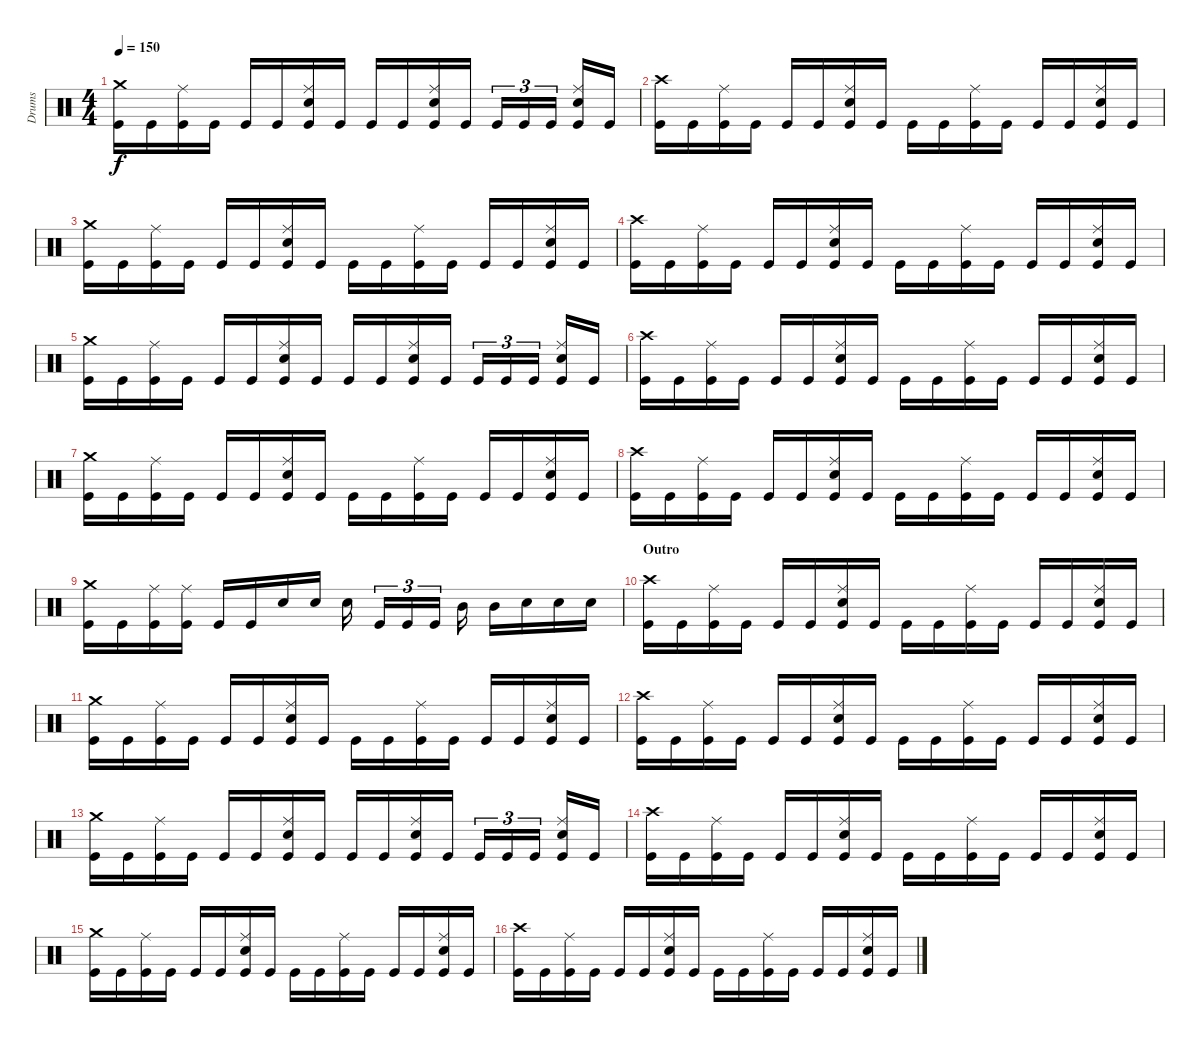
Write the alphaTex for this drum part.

\track ("Drums" "Drums") {instrument percussion}
\staff {score}
\articulation defaults
\ts (4 4)
\tempo 150
\clef neutral
\ks c
("Crash medium (hit)" "Kick (hit)").16{dy f} "Kick (hit)".16 ("Ride (middle)" "Kick (hit)").16 "Kick (hit)".16 "Kick (hit)".16 "Kick (hit)".16 ("Ride (middle)" "Electric Snare (hit)" "Kick (hit)").16 "Kick (hit)".16 "Kick (hit)".16 "Kick (hit)".16 ("Ride (middle)" "Electric Snare (hit)" "Kick (hit)").16 "Kick (hit)".16 "Kick (hit)".16{tu (3 2)} "Kick (hit)".16{tu (3 2)} "Kick (hit)".16{tu (3 2)} ("Ride (middle)" "Electric Snare (hit)" "Kick (hit)").16 "Kick (hit)".16 |
("Crash high (hit)" "Kick (hit)").16 "Kick (hit)".16 ("Ride (middle)" "Kick (hit)").16 "Kick (hit)".16 "Kick (hit)".16 "Kick (hit)".16 ("Ride (middle)" "Electric Snare (hit)" "Kick (hit)").16 "Kick (hit)".16 "Kick (hit)".16 "Kick (hit)".16 ("Ride (middle)" "Kick (hit)").16 "Kick (hit)".16 "Kick (hit)".16 "Kick (hit)".16 ("Ride (middle)" "Electric Snare (hit)" "Kick (hit)").16 "Kick (hit)".16 |
("Crash medium (hit)" "Kick (hit)").16 "Kick (hit)".16 ("Ride (middle)" "Kick (hit)").16 "Kick (hit)".16 "Kick (hit)".16 "Kick (hit)".16 ("Ride (middle)" "Electric Snare (hit)" "Kick (hit)").16 "Kick (hit)".16 "Kick (hit)".16 "Kick (hit)".16 ("Ride (middle)" "Kick (hit)").16 "Kick (hit)".16 "Kick (hit)".16 "Kick (hit)".16 ("Ride (middle)" "Electric Snare (hit)" "Kick (hit)").16 "Kick (hit)".16 |
("Crash high (hit)" "Kick (hit)").16 "Kick (hit)".16 ("Ride (middle)" "Kick (hit)").16 "Kick (hit)".16 "Kick (hit)".16 "Kick (hit)".16 ("Ride (middle)" "Electric Snare (hit)" "Kick (hit)").16 "Kick (hit)".16 "Kick (hit)".16 "Kick (hit)".16 ("Ride (middle)" "Kick (hit)").16 "Kick (hit)".16 "Kick (hit)".16 "Kick (hit)".16 ("Ride (middle)" "Electric Snare (hit)" "Kick (hit)").16 "Kick (hit)".16 |
("Crash medium (hit)" "Kick (hit)").16 "Kick (hit)".16 ("Ride (middle)" "Kick (hit)").16 "Kick (hit)".16 "Kick (hit)".16 "Kick (hit)".16 ("Ride (middle)" "Electric Snare (hit)" "Kick (hit)").16 "Kick (hit)".16 "Kick (hit)".16 "Kick (hit)".16 ("Ride (middle)" "Electric Snare (hit)" "Kick (hit)").16 "Kick (hit)".16 "Kick (hit)".16{tu (3 2)} "Kick (hit)".16{tu (3 2)} "Kick (hit)".16{tu (3 2)} ("Ride (middle)" "Electric Snare (hit)" "Kick (hit)").16 "Kick (hit)".16 |
("Crash high (hit)" "Kick (hit)").16 "Kick (hit)".16 ("Ride (middle)" "Kick (hit)").16 "Kick (hit)".16 "Kick (hit)".16 "Kick (hit)".16 ("Ride (middle)" "Electric Snare (hit)" "Kick (hit)").16 "Kick (hit)".16 "Kick (hit)".16 "Kick (hit)".16 ("Ride (middle)" "Kick (hit)").16 "Kick (hit)".16 "Kick (hit)".16 "Kick (hit)".16 ("Ride (middle)" "Electric Snare (hit)" "Kick (hit)").16 "Kick (hit)".16 |
("Crash medium (hit)" "Kick (hit)").16 "Kick (hit)".16 ("Ride (middle)" "Kick (hit)").16 "Kick (hit)".16 "Kick (hit)".16 "Kick (hit)".16 ("Ride (middle)" "Electric Snare (hit)" "Kick (hit)").16 "Kick (hit)".16 "Kick (hit)".16 "Kick (hit)".16 ("Ride (middle)" "Kick (hit)").16 "Kick (hit)".16 "Kick (hit)".16 "Kick (hit)".16 ("Ride (middle)" "Electric Snare (hit)" "Kick (hit)").16 "Kick (hit)".16 |
("Crash high (hit)" "Kick (hit)").16 "Kick (hit)".16 ("Ride (middle)" "Kick (hit)").16 "Kick (hit)".16 "Kick (hit)".16 "Kick (hit)".16 ("Ride (middle)" "Electric Snare (hit)" "Kick (hit)").16 "Kick (hit)".16 "Kick (hit)".16 "Kick (hit)".16 ("Ride (middle)" "Kick (hit)").16 "Kick (hit)".16 "Kick (hit)".16 "Kick (hit)".16 ("Ride (middle)" "Electric Snare (hit)" "Kick (hit)").16 "Kick (hit)".16 |
("Crash medium (hit)" "Kick (hit)").16 "Kick (hit)".16 ("Ride (middle)" "Kick (hit)").16 ("Ride (middle)" "Kick (hit)").16 "Kick (hit)".16 "Kick (hit)".16 "Electric Snare (hit)".16 "Electric Snare (hit)".16 "Electric Snare (hit)".16 "Kick (hit)".16{tu (3 2)} "Kick (hit)".16{tu (3 2)} "Kick (hit)".16{tu (3 2)} "Mid Tom (hit)".16 "Mid Tom (hit)".16 "Electric Snare (hit)".16 "Electric Snare (hit)".16 "Electric Snare (hit)".16 |
\section ("" "Outro")
("Crash high (hit)" "Kick (hit)").16 "Kick (hit)".16 ("Ride (middle)" "Kick (hit)").16 "Kick (hit)".16 "Kick (hit)".16 "Kick (hit)".16 ("Ride (middle)" "Electric Snare (hit)" "Kick (hit)").16 "Kick (hit)".16 "Kick (hit)".16 "Kick (hit)".16 ("Ride (middle)" "Kick (hit)").16 "Kick (hit)".16 "Kick (hit)".16 "Kick (hit)".16 ("Ride (middle)" "Electric Snare (hit)" "Kick (hit)").16 "Kick (hit)".16 |
("Crash medium (hit)" "Kick (hit)").16 "Kick (hit)".16 ("Ride (middle)" "Kick (hit)").16 "Kick (hit)".16 "Kick (hit)".16 "Kick (hit)".16 ("Ride (middle)" "Electric Snare (hit)" "Kick (hit)").16 "Kick (hit)".16 "Kick (hit)".16 "Kick (hit)".16 ("Ride (middle)" "Kick (hit)").16 "Kick (hit)".16 "Kick (hit)".16 "Kick (hit)".16 ("Ride (middle)" "Electric Snare (hit)" "Kick (hit)").16 "Kick (hit)".16 |
("Crash high (hit)" "Kick (hit)").16 "Kick (hit)".16 ("Ride (middle)" "Kick (hit)").16 "Kick (hit)".16 "Kick (hit)".16 "Kick (hit)".16 ("Ride (middle)" "Electric Snare (hit)" "Kick (hit)").16 "Kick (hit)".16 "Kick (hit)".16 "Kick (hit)".16 ("Ride (middle)" "Kick (hit)").16 "Kick (hit)".16 "Kick (hit)".16 "Kick (hit)".16 ("Ride (middle)" "Electric Snare (hit)" "Kick (hit)").16 "Kick (hit)".16 |
("Crash medium (hit)" "Kick (hit)").16 "Kick (hit)".16 ("Ride (middle)" "Kick (hit)").16 "Kick (hit)".16 "Kick (hit)".16 "Kick (hit)".16 ("Ride (middle)" "Electric Snare (hit)" "Kick (hit)").16 "Kick (hit)".16 "Kick (hit)".16 "Kick (hit)".16 ("Ride (middle)" "Electric Snare (hit)" "Kick (hit)").16 "Kick (hit)".16 "Kick (hit)".16{tu (3 2)} "Kick (hit)".16{tu (3 2)} "Kick (hit)".16{tu (3 2)} ("Ride (middle)" "Electric Snare (hit)" "Kick (hit)").16 "Kick (hit)".16 |
("Crash high (hit)" "Kick (hit)").16 "Kick (hit)".16 ("Ride (middle)" "Kick (hit)").16 "Kick (hit)".16 "Kick (hit)".16 "Kick (hit)".16 ("Ride (middle)" "Electric Snare (hit)" "Kick (hit)").16 "Kick (hit)".16 "Kick (hit)".16 "Kick (hit)".16 ("Ride (middle)" "Kick (hit)").16 "Kick (hit)".16 "Kick (hit)".16 "Kick (hit)".16 ("Ride (middle)" "Electric Snare (hit)" "Kick (hit)").16 "Kick (hit)".16 |
("Crash medium (hit)" "Kick (hit)").16 "Kick (hit)".16 ("Ride (middle)" "Kick (hit)").16 "Kick (hit)".16 "Kick (hit)".16 "Kick (hit)".16 ("Ride (middle)" "Electric Snare (hit)" "Kick (hit)").16 "Kick (hit)".16 "Kick (hit)".16 "Kick (hit)".16 ("Ride (middle)" "Kick (hit)").16 "Kick (hit)".16 "Kick (hit)".16 "Kick (hit)".16 ("Ride (middle)" "Electric Snare (hit)" "Kick (hit)").16 "Kick (hit)".16 |
("Crash high (hit)" "Kick (hit)").16 "Kick (hit)".16 ("Ride (middle)" "Kick (hit)").16 "Kick (hit)".16 "Kick (hit)".16 "Kick (hit)".16 ("Ride (middle)" "Electric Snare (hit)" "Kick (hit)").16 "Kick (hit)".16 "Kick (hit)".16 "Kick (hit)".16 ("Ride (middle)" "Kick (hit)").16 "Kick (hit)".16 "Kick (hit)".16 "Kick (hit)".16 ("Ride (middle)" "Electric Snare (hit)" "Kick (hit)").16 "Kick (hit)".16
